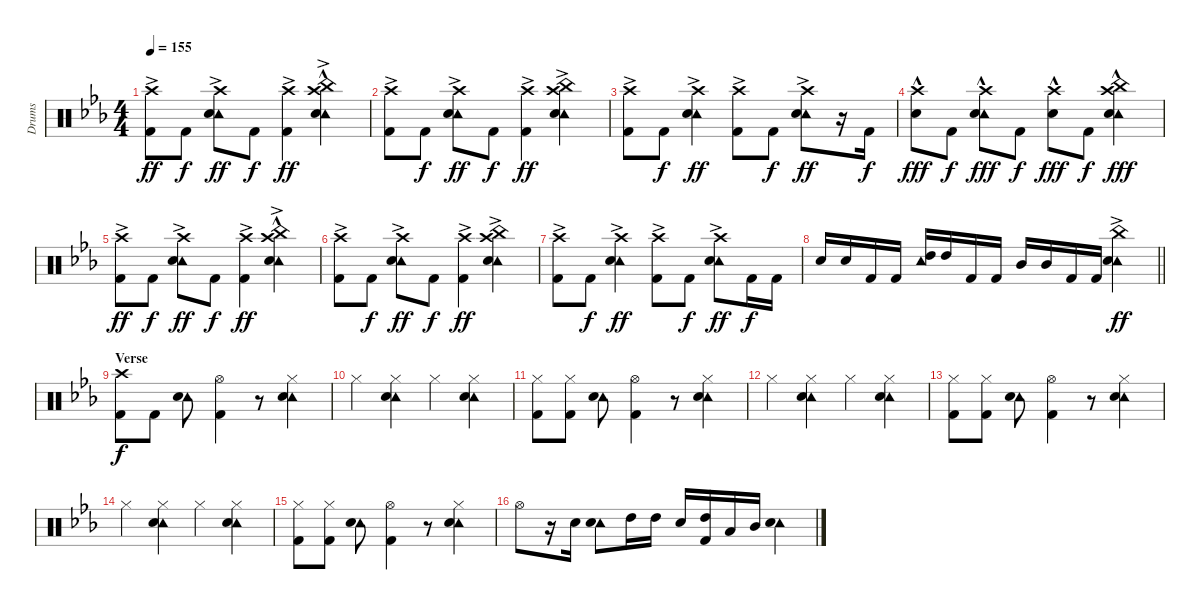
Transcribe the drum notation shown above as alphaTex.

\track ("Drums" "Drums") {instrument percussion}
\staff {score}
\articulation defaults
\ts (4 4)
\tempo 155
\clef neutral
\ks eb
("Crash high (hit)"{ac} "Kick (hit) 2").8{dy ff} "Kick (hit) 2".8{dy f} ("Tambourine (hit)" "Crash high (hit)"{ac} "Snare (hit) 2").8{dy ff} "Kick (hit) 2".8{dy f} ("Crash high (hit)"{ac} "Kick (hit) 2").4{dy ff} ("Tambourine (hit)" "China (hit)"{hac} "Crash high (hit)"{ac} "Snare (hit) 2").4 |
("Crash high (hit)"{ac} "Kick (hit) 2").8 "Kick (hit) 2".8{dy f} ("Tambourine (hit)" "Crash high (hit)"{ac} "Snare (hit) 2").8{dy ff} "Kick (hit) 2".8{dy f} ("Crash high (hit)"{ac} "Kick (hit) 2").4{dy ff} ("Tambourine (hit)" "China (hit)"{ac} "Crash high (hit)"{ac} "Snare (hit) 2").4 |
("Crash high (hit)"{ac} "Kick (hit) 2").8 "Kick (hit) 2".8{dy f} ("Tambourine (hit)" "Crash high (hit)"{ac} "Snare (hit) 2").4{dy ff} ("Crash high (hit)"{ac} "Kick (hit) 2").8 "Kick (hit) 2".8{dy f} ("Tambourine (hit)" "Crash high (hit)"{ac} "Snare (hit) 2").8{dy ff} r.16 "Kick (hit) 2".16{dy f} |
("Crash high (hit)"{hac} "Snare (hit) 2").8{dy fff} "Kick (hit) 2".8{dy f} ("Tambourine (hit)" "Crash high (hit)"{hac} "Snare (hit) 2").8{dy fff} "Kick (hit) 2".8{dy f} ("Crash high (hit)"{hac} "Snare (hit) 2").8{dy fff} "Kick (hit) 2".8{dy f} ("Tambourine (hit)" "China (hit)"{hac} "Crash high (hit)"{hac} "Snare (hit) 2").4{dy fff} |
("Crash high (hit)"{ac} "Kick (hit) 2").8{dy ff} "Kick (hit) 2".8{dy f} ("Tambourine (hit)" "Crash high (hit)"{ac} "Snare (hit) 2").8{dy ff} "Kick (hit) 2".8{dy f} ("Crash high (hit)"{ac} "Kick (hit) 2").4{dy ff} ("Tambourine (hit)" "China (hit)"{hac} "Crash high (hit)"{ac} "Snare (hit) 2").4 |
("Crash high (hit)"{ac} "Kick (hit) 2").8 "Kick (hit) 2".8{dy f} ("Tambourine (hit)" "Crash high (hit)"{ac} "Snare (hit) 2").8{dy ff} "Kick (hit) 2".8{dy f} ("Crash high (hit)"{ac} "Kick (hit) 2").4{dy ff} ("Tambourine (hit)" "China (hit)"{ac} "Crash high (hit)"{ac} "Snare (hit) 2").4 |
("Crash high (hit)"{ac} "Kick (hit) 2").8 "Kick (hit) 2".8{dy f} ("Tambourine (hit)" "Crash high (hit)"{ac} "Snare (hit) 2").4{dy ff} ("Crash high (hit)"{ac} "Kick (hit) 2").8 "Kick (hit) 2".8{dy f} ("Tambourine (hit)" "Crash high (hit)"{ac} "Snare (hit) 2").8{dy ff} "Kick (hit) 2".16{dy f} "Kick (hit) 2".16 |
\barLineRight lightlight "Snare (hit) 2".16 "Snare (hit) 2".16 "Kick (hit) 2".16 "Kick (hit) 2".16
("Tambourine (hit)" "High Tom (hit)").16 "High Tom (hit)".16 "Kick (hit) 2".16 "Kick (hit) 2".16 "Mid Tom (hit)".16 "Mid Tom (hit)".16 "Kick (hit) 2".16 "Kick (hit) 2".16 ("Tambourine (hit)" "China (hit)"{ac} "Snare (hit) 2").4{dy ff} |
\section ("" "Verse")
("Crash high (hit)" "Kick (hit) 2").8{dy f} "Kick (hit) 2".8 ("Tambourine (hit)" "Snare (hit) 2").8 ("Hi-Hat (open)" "Kick (hit) 2").4 r.8 ("Tambourine (hit)" "Hi-Hat (closed)" "Snare (hit) 2").4 |
"Hi-Hat (closed)".4 ("Tambourine (hit)" "Hi-Hat (closed)" "Snare (hit) 2").4 "Hi-Hat (closed)".4 ("Tambourine (hit)" "Hi-Hat (closed)" "Snare (hit) 2").4 |
("Hi-Hat (closed)" "Kick (hit) 2").8 ("Hi-Hat (closed)" "Kick (hit) 2").8 ("Tambourine (hit)" "Snare (hit) 2").8 ("Hi-Hat (open)" "Kick (hit) 2").4 r.8 ("Tambourine (hit)" "Hi-Hat (closed)" "Snare (hit) 2").4 |
"Hi-Hat (closed)".4 ("Tambourine (hit)" "Hi-Hat (closed)" "Snare (hit) 2").4 "Hi-Hat (closed)".4 ("Tambourine (hit)" "Hi-Hat (closed)" "Snare (hit) 2").4 |
("Hi-Hat (closed)" "Kick (hit) 2").8 ("Hi-Hat (closed)" "Kick (hit) 2").8 ("Tambourine (hit)" "Snare (hit) 2").8 ("Hi-Hat (open)" "Kick (hit) 2").4 r.8 ("Tambourine (hit)" "Hi-Hat (closed)" "Snare (hit) 2").4 |
"Hi-Hat (closed)".4 ("Tambourine (hit)" "Hi-Hat (closed)" "Snare (hit) 2").4 "Hi-Hat (closed)".4 ("Tambourine (hit)" "Hi-Hat (closed)" "Snare (hit) 2").4 |
("Hi-Hat (closed)" "Kick (hit) 2").8 ("Hi-Hat (closed)" "Kick (hit) 2").8 ("Tambourine (hit)" "Snare (hit) 2").8 ("Hi-Hat (open)" "Kick (hit) 2").4 r.8 ("Tambourine (hit)" "Hi-Hat (closed)" "Snare (hit) 2").4 |
"Hi-Hat (open)".8 r.16 "Snare (hit) 2".16 ("Tambourine (hit)" "Snare (hit) 2").8 "High Tom (hit)".16 "High Tom (hit)".16 "Snare (hit) 2".16 ("High Tom (hit)" "Kick (hit) 2").16 "Low Tom (hit)".16 "Mid Tom (hit)".16 ("Tambourine (hit)" "Snare (hit) 2").4
